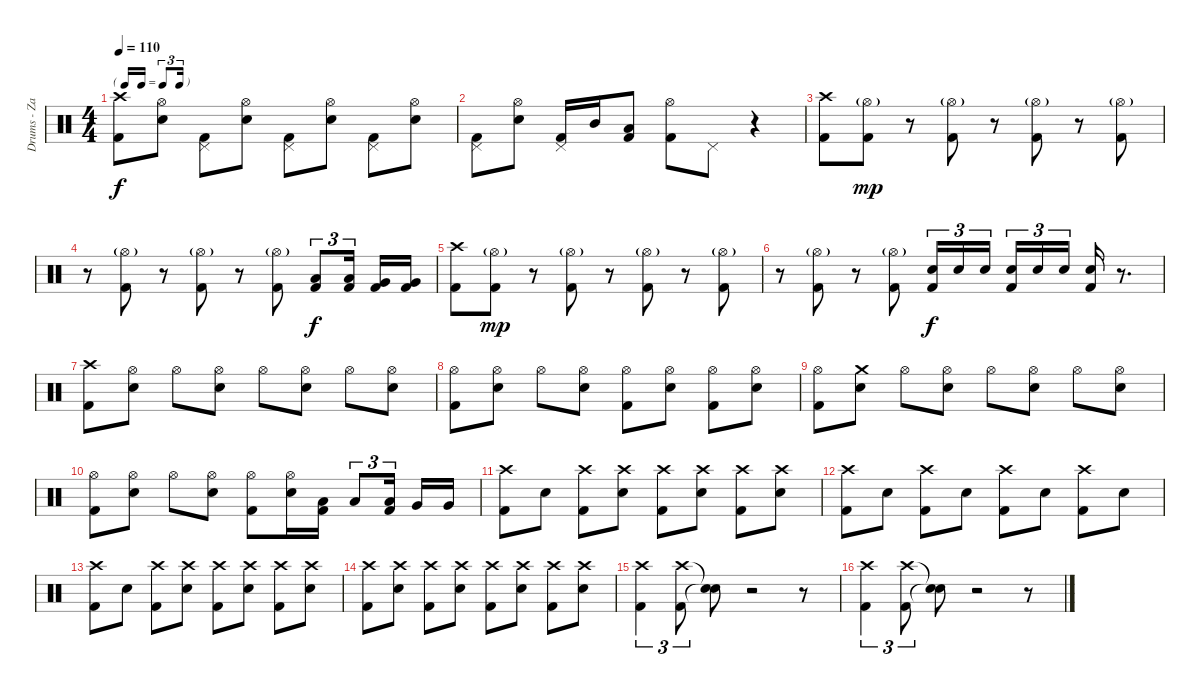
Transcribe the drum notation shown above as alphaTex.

\track ("Drums - Zac" "Drums - Za") {instrument percussion}
\staff {score}
\articulation defaults
\ts (4 4)
\tf triplet16th
\tempo 110
\clef neutral
\ks c
("Crash high (hit)" "Kick (hit) 2").8{dy f} ("Hi-Hat (open)" "Snare (hit) 2").8 ("Pedal Hi-Hat (hit)" "Kick (hit) 2").8 ("Hi-Hat (open)" "Snare (hit) 2").8 ("Pedal Hi-Hat (hit)" "Kick (hit) 2").8 ("Hi-Hat (open)" "Snare (hit) 2").8 ("Pedal Hi-Hat (hit)" "Kick (hit) 2").8 ("Hi-Hat (open)" "Snare (hit) 2").8 |
("Pedal Hi-Hat (hit)" "Kick (hit) 2").8 ("Hi-Hat (open)" "Snare (hit) 2").8 ("Pedal Hi-Hat (hit)" "Kick (hit) 2").16 "Mid Tom (hit)".16 ("Low Tom (hit)" "Kick (hit) 2").8 ("Hi-Hat (open)" "Kick (hit) 2").8 "Pedal Hi-Hat (hit)".8 r.4 |
("Crash high (hit)" "Kick (hit) 2").8 ("Hi-Hat (open)"{g} "Kick (hit) 2").8{dy mp} r.8 ("Hi-Hat (open)"{g} "Kick (hit) 2").8 r.8 ("Hi-Hat (open)"{g} "Kick (hit) 2").8 r.8 ("Hi-Hat (open)"{g} "Kick (hit) 2").8 |
r.8 ("Hi-Hat (open)"{g} "Kick (hit) 2").8 r.8 ("Hi-Hat (open)"{g} "Kick (hit) 2").8 r.8 ("Hi-Hat (open)"{g} "Kick (hit) 2").8 ("Low Tom (hit)" "Kick (hit) 2").8{tu (3 2) dy f} ("Low Tom (hit)" "Kick (hit) 2").16{tu (3 2) beam splitsecondary} ("Very Low Tom (hit)" "Kick (hit) 2").16 ("Very Low Tom (hit)" "Kick (hit) 2").16 |
("Crash high (hit)" "Kick (hit) 2").8 ("Hi-Hat (open)"{g} "Kick (hit) 2").8{dy mp} r.8 ("Hi-Hat (open)"{g} "Kick (hit) 2").8 r.8 ("Hi-Hat (open)"{g} "Kick (hit) 2").8 r.8 ("Hi-Hat (open)"{g} "Kick (hit) 2").8 |
r.8 ("Hi-Hat (open)"{g} "Kick (hit) 2").8 r.8 ("Hi-Hat (open)"{g} "Kick (hit) 2").8 ("Snare (hit) 2" "Kick (hit) 2").16{tu (3 2) dy f} "Snare (hit) 2".16{tu (3 2)} "Snare (hit) 2".16{tu (3 2) beam splitsecondary} ("Snare (hit) 2" "Kick (hit) 2").16{tu (3 2)} "Snare (hit) 2".16{tu (3 2)} "Snare (hit) 2".16{tu (3 2)} ("Snare (hit) 2" "Kick (hit) 2").16 r.8{d} |
("Crash high (hit)" "Kick (hit) 2").8 ("Hi-Hat (open)" "Snare (hit) 2").8 "Hi-Hat (open)".8 ("Hi-Hat (open)" "Snare (hit) 2").8 "Hi-Hat (open)".8 ("Hi-Hat (open)" "Snare (hit) 2").8 "Hi-Hat (open)".8 ("Hi-Hat (open)" "Snare (hit) 2").8 |
("Hi-Hat (open)" "Kick (hit) 2").8 ("Hi-Hat (open)" "Snare (hit) 2").8 "Hi-Hat (open)".8 ("Hi-Hat (open)" "Snare (hit) 2").8 ("Hi-Hat (open)" "Kick (hit) 2").8 ("Hi-Hat (open)" "Snare (hit) 2").8 ("Hi-Hat (open)" "Kick (hit) 2").8 ("Hi-Hat (open)" "Snare (hit) 2").8 |
("Hi-Hat (open)" "Kick (hit) 2").8 ("Crash medium (hit)" "Snare (hit) 2").8 "Hi-Hat (open)".8 ("Hi-Hat (open)" "Snare (hit) 2").8 "Hi-Hat (open)".8 ("Hi-Hat (open)" "Snare (hit) 2").8 "Hi-Hat (open)".8 ("Hi-Hat (open)" "Snare (hit) 2").8 |
("Hi-Hat (open)" "Kick (hit) 2").8 ("Hi-Hat (open)" "Snare (hit) 2").8 "Hi-Hat (open)".8 ("Hi-Hat (open)" "Snare (hit) 2").8 ("Hi-Hat (open)" "Kick (hit) 2").8 ("Hi-Hat (open)" "Snare (hit) 2").16 ("Low Tom (hit)" "Kick (hit) 2").16 "Low Tom (hit)".8{tu (3 2)} ("Low Tom (hit)" "Kick (hit) 2").16{tu (3 2) beam splitsecondary} "Very Low Tom (hit)".16 "Very Low Tom (hit)".16 |
("Crash high (hit)" "Kick (hit) 2").8 "Snare (hit) 2".8 ("Crash high (hit)" "Kick (hit) 2").8 ("Crash high (hit)" "Snare (hit) 2").8 ("Crash high (hit)" "Kick (hit) 2").8 ("Crash high (hit)" "Snare (hit) 2").8 ("Crash high (hit)" "Kick (hit) 2").8 ("Crash high (hit)" "Snare (hit) 2").8 |
("Crash high (hit)" "Kick (hit) 2").8 "Snare (hit) 2".8 ("Crash high (hit)" "Kick (hit) 2").8 "Snare (hit) 2".8 ("Crash high (hit)" "Kick (hit) 2").8 "Snare (hit) 2".8 ("Crash high (hit)" "Kick (hit) 2").8 "Snare (hit) 2".8 |
("Crash high (hit)" "Kick (hit) 2").8 "Snare (hit) 2".8 ("Crash high (hit)" "Kick (hit) 2").8 ("Crash high (hit)" "Snare (hit) 2").8 ("Crash high (hit)" "Kick (hit) 2").8 ("Crash high (hit)" "Snare (hit) 2").8 ("Crash high (hit)" "Kick (hit) 2").8 ("Crash high (hit)" "Snare (hit) 2").8 |
("Crash high (hit)" "Kick (hit) 2").8 ("Crash high (hit)" "Snare (hit) 2").8 ("Crash high (hit)" "Kick (hit) 2").8 ("Crash high (hit)" "Snare (hit) 2").8 ("Crash high (hit)" "Kick (hit) 2").8 ("Crash high (hit)" "Snare (hit) 2").8 ("Crash high (hit)" "Kick (hit) 2").8 ("Crash high (hit)" "Snare (hit) 2").8 |
("Crash high (hit)" "Kick (hit) 2").4{tu (3 2)} ("Crash high (hit)" "Kick (hit) 2").8{tu (3 2)} ("Snare (hit)"{t} "Snare (hit)"{t}).8 r.2{volume 0} r.8 |
("Crash high (hit)" "Kick (hit) 2").4{tu (3 2) volume 12} ("Crash high (hit)" "Kick (hit) 2").8{tu (3 2)} ("Snare (hit)"{t} "Snare (hit)"{t}).8 r.2{volume 0} r.8
